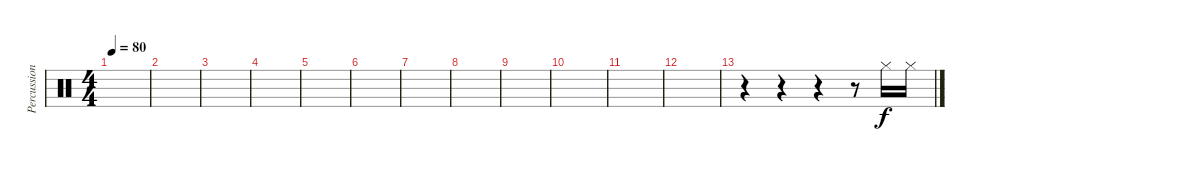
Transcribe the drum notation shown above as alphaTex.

\track ("Percussions" "Percussion") {instrument percussion}
\staff {score}
\articulation defaults
\ts (4 4)
\tempo 80
\clef neutral
\ks c
|
|
|
|
|
|
|
|
|
|
|
|
r.4 r.4 r.4 r.8 "Hi-Hat (closed)".16 "Hi-Hat (closed)".16
